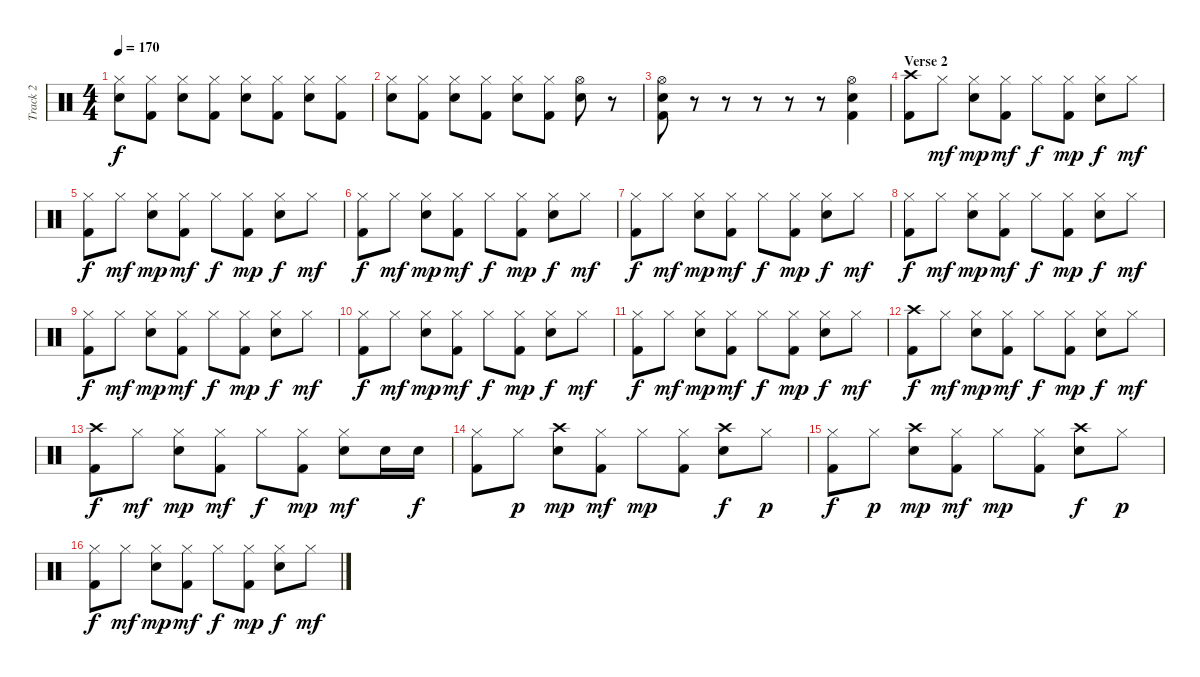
\track ("Track 2" "Track 2") {instrument percussion}
\staff {score}
\articulation defaults
\ts (4 4)
\tempo 170
\clef neutral
\ks c
("Hi-Hat (closed)" "Electric Snare (hit)").8{dy f} ("Hi-Hat (closed)" "Kick (hit) 2").8 ("Hi-Hat (closed)" "Electric Snare (hit)").8 ("Hi-Hat (closed)" "Kick (hit) 2").8 ("Hi-Hat (closed)" "Electric Snare (hit)").8 ("Hi-Hat (closed)" "Kick (hit) 2").8 ("Hi-Hat (closed)" "Electric Snare (hit)").8 ("Hi-Hat (closed)" "Kick (hit) 2").8 |
("Hi-Hat (closed)" "Electric Snare (hit)").8 ("Hi-Hat (closed)" "Kick (hit) 2").8 ("Hi-Hat (closed)" "Electric Snare (hit)").8 ("Hi-Hat (closed)" "Kick (hit) 2").8 ("Hi-Hat (closed)" "Electric Snare (hit)").8 ("Hi-Hat (closed)" "Kick (hit) 2").8 ("Hi-Hat (open)" "Electric Snare (hit)").8 r.8 |
("Hi-Hat (open)" "Electric Snare (hit)" "Kick (hit) 2").8 r.8 r.8 r.8 r.8 r.8 ("Hi-Hat (open)" "Electric Snare (hit)" "Kick (hit) 2").4 |
\section ("" "Verse 2")
("Crash high (hit)" "Kick (hit) 2").8 "Hi-Hat (closed)".8{dy mf} ("Hi-Hat (closed)" "Electric Snare (hit)").8{dy mp} ("Hi-Hat (closed)" "Kick (hit) 2").8{dy mf} "Hi-Hat (closed)".8{dy f} ("Hi-Hat (closed)" "Kick (hit) 2").8{dy mp} ("Hi-Hat (closed)" "Electric Snare (hit)").8{dy f} "Hi-Hat (closed)".8{dy mf} |
("Hi-Hat (closed)" "Kick (hit) 2").8{dy f} "Hi-Hat (closed)".8{dy mf} ("Hi-Hat (closed)" "Electric Snare (hit)").8{dy mp} ("Hi-Hat (closed)" "Kick (hit) 2").8{dy mf} "Hi-Hat (closed)".8{dy f} ("Hi-Hat (closed)" "Kick (hit) 2").8{dy mp} ("Hi-Hat (closed)" "Electric Snare (hit)").8{dy f} "Hi-Hat (closed)".8{dy mf} |
("Hi-Hat (closed)" "Kick (hit) 2").8{dy f} "Hi-Hat (closed)".8{dy mf} ("Hi-Hat (closed)" "Electric Snare (hit)").8{dy mp} ("Hi-Hat (closed)" "Kick (hit) 2").8{dy mf} "Hi-Hat (closed)".8{dy f} ("Hi-Hat (closed)" "Kick (hit) 2").8{dy mp} ("Hi-Hat (closed)" "Electric Snare (hit)").8{dy f} "Hi-Hat (closed)".8{dy mf} |
("Hi-Hat (closed)" "Kick (hit) 2").8{dy f} "Hi-Hat (closed)".8{dy mf} ("Hi-Hat (closed)" "Electric Snare (hit)").8{dy mp} ("Hi-Hat (closed)" "Kick (hit) 2").8{dy mf} "Hi-Hat (closed)".8{dy f} ("Hi-Hat (closed)" "Kick (hit) 2").8{dy mp} ("Hi-Hat (closed)" "Electric Snare (hit)").8{dy f} "Hi-Hat (closed)".8{dy mf} |
("Hi-Hat (closed)" "Kick (hit) 2").8{dy f} "Hi-Hat (closed)".8{dy mf} ("Hi-Hat (closed)" "Electric Snare (hit)").8{dy mp} ("Hi-Hat (closed)" "Kick (hit) 2").8{dy mf} "Hi-Hat (closed)".8{dy f} ("Hi-Hat (closed)" "Kick (hit) 2").8{dy mp} ("Hi-Hat (closed)" "Electric Snare (hit)").8{dy f} "Hi-Hat (closed)".8{dy mf} |
("Hi-Hat (closed)" "Kick (hit) 2").8{dy f} "Hi-Hat (closed)".8{dy mf} ("Hi-Hat (closed)" "Electric Snare (hit)").8{dy mp} ("Hi-Hat (closed)" "Kick (hit) 2").8{dy mf} "Hi-Hat (closed)".8{dy f} ("Hi-Hat (closed)" "Kick (hit) 2").8{dy mp} ("Hi-Hat (closed)" "Electric Snare (hit)").8{dy f} "Hi-Hat (closed)".8{dy mf} |
("Hi-Hat (closed)" "Kick (hit) 2").8{dy f} "Hi-Hat (closed)".8{dy mf} ("Hi-Hat (closed)" "Electric Snare (hit)").8{dy mp} ("Hi-Hat (closed)" "Kick (hit) 2").8{dy mf} "Hi-Hat (closed)".8{dy f} ("Hi-Hat (closed)" "Kick (hit) 2").8{dy mp} ("Hi-Hat (closed)" "Electric Snare (hit)").8{dy f} "Hi-Hat (closed)".8{dy mf} |
("Hi-Hat (closed)" "Kick (hit) 2").8{dy f} "Hi-Hat (closed)".8{dy mf} ("Hi-Hat (closed)" "Electric Snare (hit)").8{dy mp} ("Hi-Hat (closed)" "Kick (hit) 2").8{dy mf} "Hi-Hat (closed)".8{dy f} ("Hi-Hat (closed)" "Kick (hit) 2").8{dy mp} ("Hi-Hat (closed)" "Electric Snare (hit)").8{dy f} "Hi-Hat (closed)".8{dy mf} |
("Crash high (hit)" "Kick (hit) 2").8{dy f} "Hi-Hat (closed)".8{dy mf} ("Hi-Hat (closed)" "Electric Snare (hit)").8{dy mp} ("Hi-Hat (closed)" "Kick (hit) 2").8{dy mf} "Hi-Hat (closed)".8{dy f} ("Hi-Hat (closed)" "Kick (hit) 2").8{dy mp} ("Hi-Hat (closed)" "Electric Snare (hit)").8{dy f} "Hi-Hat (closed)".8{dy mf} |
("Crash high (hit)" "Kick (hit) 2").8{dy f} "Hi-Hat (closed)".8{dy mf} ("Hi-Hat (closed)" "Electric Snare (hit)").8{dy mp} ("Hi-Hat (closed)" "Kick (hit) 2").8{dy mf} "Hi-Hat (closed)".8{dy f} ("Hi-Hat (closed)" "Kick (hit) 2").8{dy mp} ("Hi-Hat (closed)" "Electric Snare (hit)").8{dy mf} "Electric Snare (hit)".16 "Electric Snare (hit)".16{dy f} |
("Hi-Hat (closed)" "Kick (hit) 2").8 "Hi-Hat (closed)".8{dy p} ("Crash high (hit)" "Electric Snare (hit)").8{dy mp} ("Hi-Hat (closed)" "Kick (hit) 2").8{dy mf} "Hi-Hat (closed)".8{dy mp} ("Hi-Hat (closed)" "Kick (hit) 2").8 ("Crash high (hit)" "Electric Snare (hit)").8{dy f} "Hi-Hat (closed)".8{dy p} |
("Hi-Hat (closed)" "Kick (hit) 2").8{dy f} "Hi-Hat (closed)".8{dy p} ("Crash high (hit)" "Electric Snare (hit)").8{dy mp} ("Hi-Hat (closed)" "Kick (hit) 2").8{dy mf} "Hi-Hat (closed)".8{dy mp} ("Hi-Hat (closed)" "Kick (hit) 2").8 ("Crash high (hit)" "Electric Snare (hit)").8{dy f} "Hi-Hat (closed)".8{dy p} |
("Hi-Hat (closed)" "Kick (hit) 2").8{dy f} "Hi-Hat (closed)".8{dy mf} ("Hi-Hat (closed)" "Electric Snare (hit)").8{dy mp} ("Hi-Hat (closed)" "Kick (hit) 2").8{dy mf} "Hi-Hat (closed)".8{dy f} ("Hi-Hat (closed)" "Kick (hit) 2").8{dy mp} ("Hi-Hat (closed)" "Electric Snare (hit)").8{dy f} "Hi-Hat (closed)".8{dy mf}
